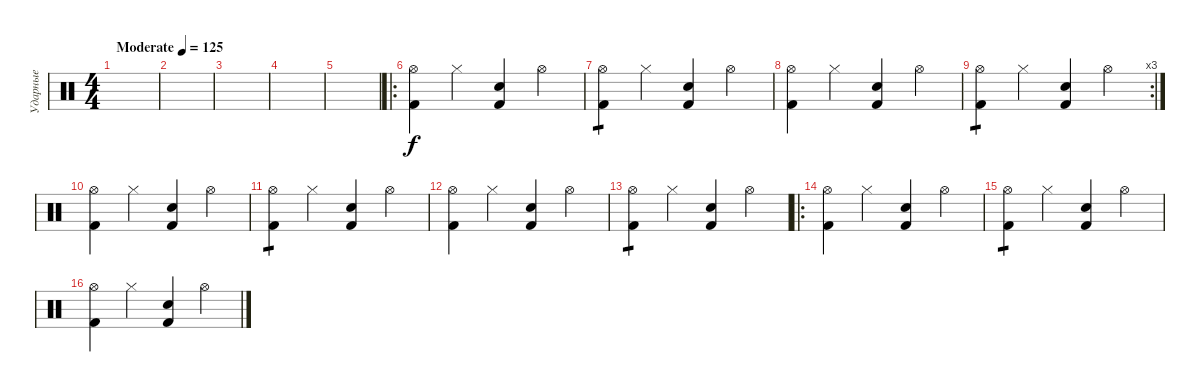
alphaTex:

\track ("Ударные" "Ударные") {instrument percussion}
\staff {score}
\articulation defaults
\ts (4 4)
\tempo (125 "Moderate")
\clef neutral
\ks c
|
|
|
|
|
\ro
("Hi-Hat (open)" "Kick (hit) 2").4 "Hi-Hat (closed)".4 ("Electric Snare (hit)" "Kick (hit) 2").4 "Hi-Hat (open)".4 |
("Hi-Hat (open)" "Kick (hit) 2").4{tp 1} "Hi-Hat (closed)".4 ("Electric Snare (hit)" "Kick (hit) 2").4 "Hi-Hat (open)".4 |
("Hi-Hat (open)" "Kick (hit) 2").4 "Hi-Hat (closed)".4 ("Electric Snare (hit)" "Kick (hit) 2").4 "Hi-Hat (open)".4 |
\rc 3
("Hi-Hat (open)" "Kick (hit) 2").4{tp 1} "Hi-Hat (closed)".4 ("Electric Snare (hit)" "Kick (hit) 2").4 "Hi-Hat (open)".4 |
("Hi-Hat (open)" "Kick (hit) 2").4 "Hi-Hat (closed)".4 ("Electric Snare (hit)" "Kick (hit) 2").4 "Hi-Hat (open)".4 |
("Hi-Hat (open)" "Kick (hit) 2").4{tp 1} "Hi-Hat (closed)".4 ("Electric Snare (hit)" "Kick (hit) 2").4 "Hi-Hat (open)".4 |
("Hi-Hat (open)" "Kick (hit) 2").4 "Hi-Hat (closed)".4 ("Electric Snare (hit)" "Kick (hit) 2").4 "Hi-Hat (open)".4 |
("Hi-Hat (open)" "Kick (hit) 2").4{tp 1} "Hi-Hat (closed)".4 ("Electric Snare (hit)" "Kick (hit) 2").4 "Hi-Hat (open)".4 |
\ro
("Hi-Hat (open)" "Kick (hit) 2").4 "Hi-Hat (closed)".4 ("Electric Snare (hit)" "Kick (hit) 2").4 "Hi-Hat (open)".4 |
("Hi-Hat (open)" "Kick (hit) 2").4{tp 1} "Hi-Hat (closed)".4 ("Electric Snare (hit)" "Kick (hit) 2").4 "Hi-Hat (open)".4 |
("Hi-Hat (open)" "Kick (hit) 2").4 "Hi-Hat (closed)".4 ("Electric Snare (hit)" "Kick (hit) 2").4 "Hi-Hat (open)".4
